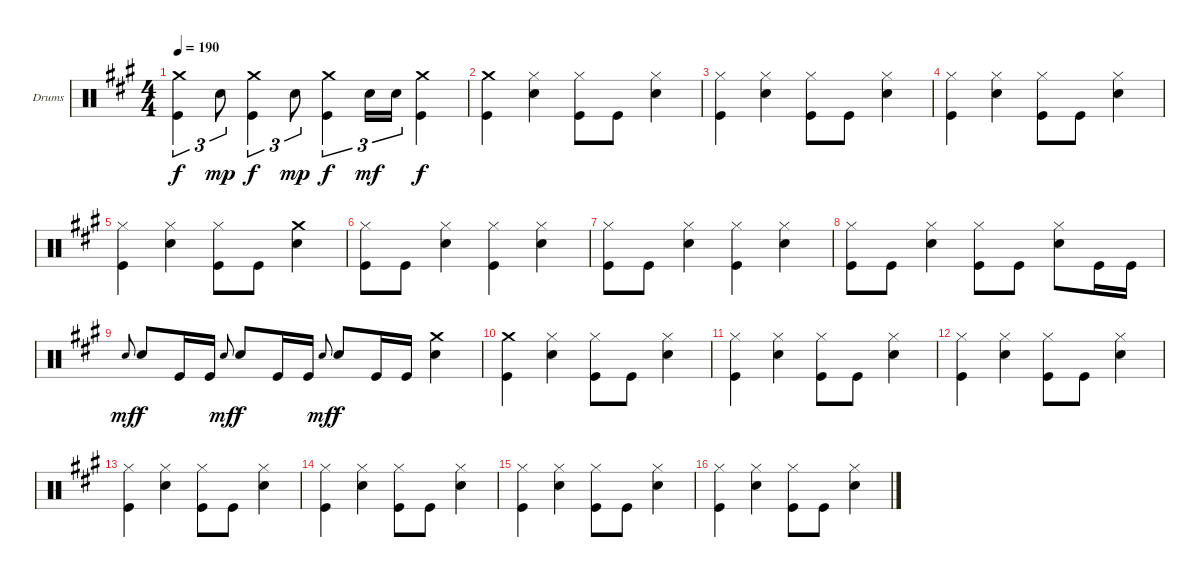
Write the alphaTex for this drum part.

\bracketExtendMode groupsimilarinstruments
\firstSystemTrackNameOrientation horizontal
\otherSystemsTrackNameOrientation horizontal
\track ("Drums" "Drums") {instrument percussion}
\staff {score}
\articulation defaults
\ts (4 4)
\tempo 190
\clef neutral
\ks a
("Kick (hit)" "Crash medium (hit)").4{tu (3 2) dy f} "Snare (hit) 2".8{tu (3 2) dy mp} ("Kick (hit)" "Crash medium (hit)").4{tu (3 2) dy f} "Snare (hit) 2".8{tu (3 2) dy mp} ("Kick (hit)" "Crash medium (hit)").4{tu (3 2) dy f} "Snare (hit) 2".16{tu (3 2) dy mf} "Snare (hit) 2".16{tu (3 2)} ("Crash medium (hit)" "Kick (hit)").4{dy f} |
("Crash medium (hit)" "Kick (hit)").4 ("Snare (hit) 2" "Hi-Hat (closed)").4 ("Kick (hit)" "Hi-Hat (closed)").8 "Kick (hit)".8 ("Snare (hit) 2" "Hi-Hat (closed)").4 |
("Kick (hit)" "Hi-Hat (closed)").4 ("Snare (hit) 2" "Hi-Hat (closed)").4 ("Kick (hit)" "Hi-Hat (closed)").8 "Kick (hit)".8 ("Snare (hit) 2" "Hi-Hat (closed)").4 |
("Kick (hit)" "Hi-Hat (closed)").4 ("Snare (hit) 2" "Hi-Hat (closed)").4 ("Kick (hit)" "Hi-Hat (closed)").8 "Kick (hit)".8 ("Snare (hit) 2" "Hi-Hat (closed)").4 |
("Kick (hit)" "Hi-Hat (closed)").4 ("Snare (hit) 2" "Hi-Hat (closed)").4 ("Kick (hit)" "Hi-Hat (closed)").8 "Kick (hit)".8 ("Crash medium (hit)" "Snare (hit) 2").4 |
("Kick (hit)" "Hi-Hat (closed)").8 "Kick (hit)".8 ("Snare (hit) 2" "Hi-Hat (closed)").4 ("Kick (hit)" "Hi-Hat (closed)").4 ("Snare (hit) 2" "Hi-Hat (closed)").4 |
("Kick (hit)" "Hi-Hat (closed)").8 "Kick (hit)".8 ("Snare (hit) 2" "Hi-Hat (closed)").4 ("Kick (hit)" "Hi-Hat (closed)").4 ("Snare (hit) 2" "Hi-Hat (closed)").4 |
("Kick (hit)" "Hi-Hat (closed)").8 "Kick (hit)".8 ("Snare (hit) 2" "Hi-Hat (closed)").4 ("Kick (hit)" "Hi-Hat (closed)").8 "Kick (hit)".8 ("Snare (hit) 2" "Hi-Hat (closed)").8 "Kick (hit)".16 "Kick (hit)".16 |
"Snare (hit) 2".8{gr onbeat dy mf} "Snare (hit) 2".8{dy f} "Kick (hit)".16 "Kick (hit)".16 "Snare (hit) 2".8{gr onbeat dy mf} "Snare (hit) 2".8{dy f} "Kick (hit)".16 "Kick (hit)".16 "Snare (hit) 2".8{gr onbeat dy mf} "Snare (hit) 2".8{dy f} "Kick (hit)".16 "Kick (hit)".16 ("Crash medium (hit)" "Snare (hit) 2").4 |
("Crash medium (hit)" "Kick (hit)").4 ("Snare (hit) 2" "Hi-Hat (closed)").4 ("Kick (hit)" "Hi-Hat (closed)").8 "Kick (hit)".8 ("Snare (hit) 2" "Hi-Hat (closed)").4 |
("Kick (hit)" "Hi-Hat (closed)").4 ("Snare (hit) 2" "Hi-Hat (closed)").4 ("Kick (hit)" "Hi-Hat (closed)").8 "Kick (hit)".8 ("Snare (hit) 2" "Hi-Hat (closed)").4 |
("Kick (hit)" "Hi-Hat (closed)").4 ("Snare (hit) 2" "Hi-Hat (closed)").4 ("Kick (hit)" "Hi-Hat (closed)").8 "Kick (hit)".8 ("Snare (hit) 2" "Hi-Hat (closed)").4 |
("Kick (hit)" "Hi-Hat (closed)").4 ("Snare (hit) 2" "Hi-Hat (closed)").4 ("Kick (hit)" "Hi-Hat (closed)").8 "Kick (hit)".8 ("Snare (hit) 2" "Hi-Hat (closed)").4 |
("Kick (hit)" "Hi-Hat (closed)").4 ("Snare (hit) 2" "Hi-Hat (closed)").4 ("Kick (hit)" "Hi-Hat (closed)").8 "Kick (hit)".8 ("Snare (hit) 2" "Hi-Hat (closed)").4 |
("Kick (hit)" "Hi-Hat (closed)").4 ("Snare (hit) 2" "Hi-Hat (closed)").4 ("Kick (hit)" "Hi-Hat (closed)").8 "Kick (hit)".8 ("Snare (hit) 2" "Hi-Hat (closed)").4 |
("Kick (hit)" "Hi-Hat (closed)").4 ("Snare (hit) 2" "Hi-Hat (closed)").4 ("Kick (hit)" "Hi-Hat (closed)").8 "Kick (hit)".8 ("Snare (hit) 2" "Hi-Hat (closed)").4
